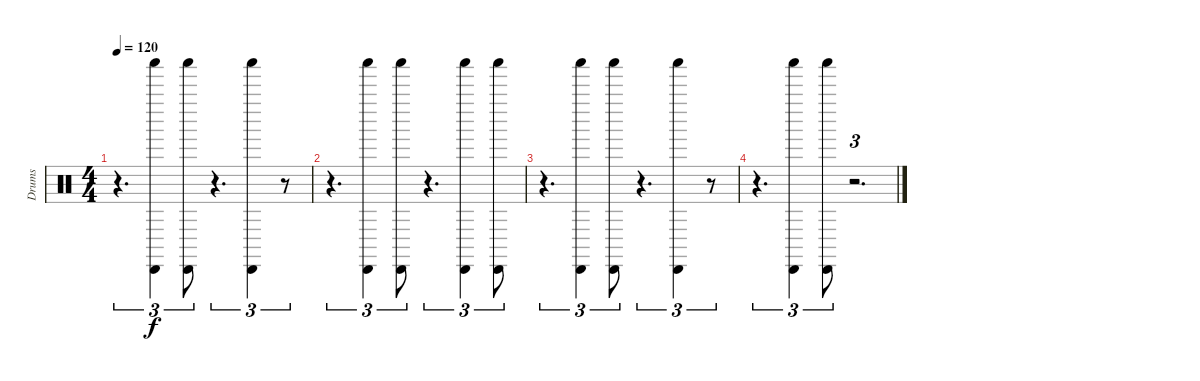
\track ("Drums" "Drums") {instrument percussion}
\staff {score}
\articulation defaults
\ts (4 4)
\tempo 120
\clef neutral
\ks c
r.4{d tu (3 2) dy f} ("Cabasa (hit)" "Shaker (hit)").4{tu (3 2)} ("Cabasa (hit)" "Shaker (hit)").8{tu (3 2)} r.4{d tu (3 2)} ("Cabasa (hit)" "Shaker (hit)").4{tu (3 2)} r.8{tu (3 2)} |
r.4{d tu (3 2)} ("Cabasa (hit)" "Shaker (hit)").4{tu (3 2)} ("Cabasa (hit)" "Shaker (hit)").8{tu (3 2)} r.4{d tu (3 2)} ("Cabasa (hit)" "Shaker (hit)").4{tu (3 2)} ("Cabasa (hit)" "Shaker (hit)").8{tu (3 2)} |
r.4{d tu (3 2)} ("Cabasa (hit)" "Shaker (hit)").4{tu (3 2)} ("Cabasa (hit)" "Shaker (hit)").8{tu (3 2)} r.4{d tu (3 2)} ("Cabasa (hit)" "Shaker (hit)").4{tu (3 2)} r.8{tu (3 2)} |
r.4{d tu (3 2)} ("Cabasa (hit)" "Shaker (hit)").4{tu (3 2)} ("Cabasa (hit)" "Shaker (hit)").8{tu (3 2)} r.2{d tu (3 2)}
